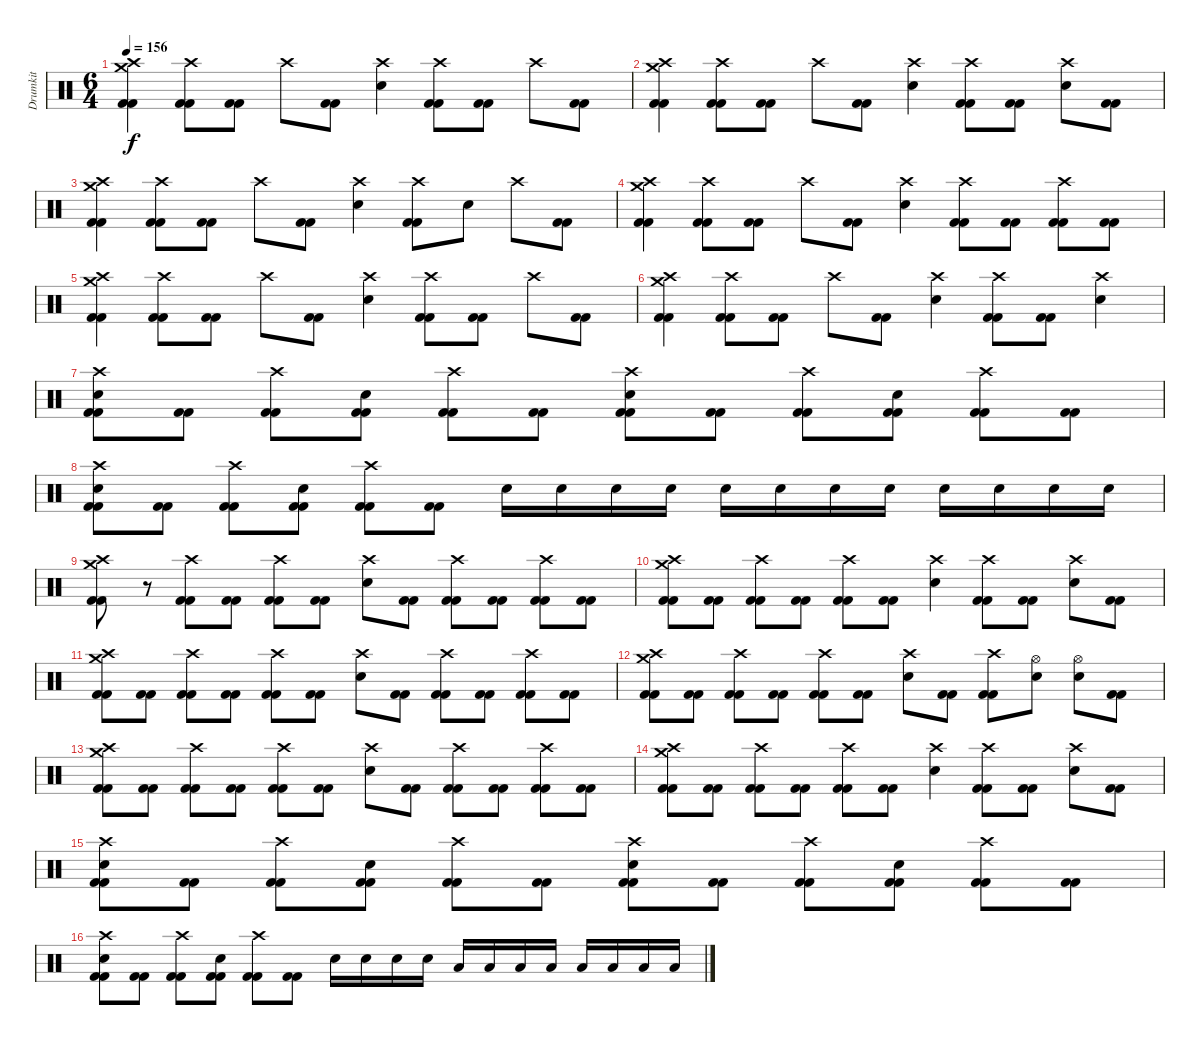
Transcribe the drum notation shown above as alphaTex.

\track ("Drumkit" "Drumkit") {instrument percussion bank 210}
\staff {score}
\articulation defaults
\ts (6 4)
\tempo 156
\clef neutral
\ks c
("Crash medium (hit)" "Crash high (hit)" "Kick (hit) 2" "Kick (hit) 2").4{dy f} ("Crash high (hit)" "Kick (hit) 2" "Kick (hit) 2").8 ("Kick (hit) 2" "Kick (hit) 2").8 "Crash high (hit)".8 ("Kick (hit) 2" "Kick (hit) 2").8 ("Crash high (hit)" "Electric Snare (hit)").4 ("Crash high (hit)" "Kick (hit) 2" "Kick (hit) 2").8 ("Kick (hit) 2" "Kick (hit) 2").8 "Crash high (hit)".8 ("Kick (hit) 2" "Kick (hit) 2").8 |
("Crash medium (hit)" "Crash high (hit)" "Kick (hit) 2" "Kick (hit) 2").4 ("Crash high (hit)" "Kick (hit) 2" "Kick (hit) 2").8 ("Kick (hit) 2" "Kick (hit) 2").8 "Crash high (hit)".8 ("Kick (hit) 2" "Kick (hit) 2").8 ("Crash high (hit)" "Electric Snare (hit)").4 ("Crash high (hit)" "Kick (hit) 2" "Kick (hit) 2").8 ("Kick (hit) 2" "Kick (hit) 2").8 ("Crash high (hit)" "Electric Snare (hit)").8 ("Kick (hit) 2" "Kick (hit) 2").8 |
("Crash medium (hit)" "Crash high (hit)" "Kick (hit) 2" "Kick (hit) 2").4 ("Crash high (hit)" "Kick (hit) 2" "Kick (hit) 2").8 ("Kick (hit) 2" "Kick (hit) 2").8 "Crash high (hit)".8 ("Kick (hit) 2" "Kick (hit) 2").8 ("Crash high (hit)" "Electric Snare (hit)").4 ("Crash high (hit)" "Kick (hit) 2" "Kick (hit) 2").8 "Electric Snare (hit)".8 "Crash high (hit)".8 ("Kick (hit) 2" "Kick (hit) 2").8 |
("Crash medium (hit)" "Crash high (hit)" "Kick (hit) 2" "Kick (hit) 2").4 ("Crash high (hit)" "Kick (hit) 2" "Kick (hit) 2").8 ("Kick (hit) 2" "Kick (hit) 2").8 "Crash high (hit)".8 ("Kick (hit) 2" "Kick (hit) 2").8 ("Crash high (hit)" "Electric Snare (hit)").4 ("Crash high (hit)" "Kick (hit) 2" "Kick (hit) 2").8 ("Kick (hit) 2" "Kick (hit) 2").8 ("Crash high (hit)" "Kick (hit) 2" "Kick (hit) 2").8 ("Kick (hit) 2" "Kick (hit) 2").8 |
("Crash medium (hit)" "Crash high (hit)" "Kick (hit) 2" "Kick (hit) 2").4 ("Crash high (hit)" "Kick (hit) 2" "Kick (hit) 2").8 ("Kick (hit) 2" "Kick (hit) 2").8 "Crash high (hit)".8 ("Kick (hit) 2" "Kick (hit) 2").8 ("Crash high (hit)" "Electric Snare (hit)").4 ("Crash high (hit)" "Kick (hit) 2" "Kick (hit) 2").8 ("Kick (hit) 2" "Kick (hit) 2").8 "Crash high (hit)".8 ("Kick (hit) 2" "Kick (hit) 2").8 |
("Crash medium (hit)" "Crash high (hit)" "Kick (hit) 2" "Kick (hit) 2").4 ("Crash high (hit)" "Kick (hit) 2" "Kick (hit) 2").8 ("Kick (hit) 2" "Kick (hit) 2").8 "Crash high (hit)".8 ("Kick (hit) 2" "Kick (hit) 2").8 ("Crash high (hit)" "Electric Snare (hit)").4 ("Crash high (hit)" "Kick (hit) 2" "Kick (hit) 2").8 ("Kick (hit) 2" "Kick (hit) 2").8 ("Crash high (hit)" "Electric Snare (hit)").4 |
("Crash high (hit)" "Electric Snare (hit)" "Kick (hit) 2" "Kick (hit) 2").8 ("Kick (hit) 2" "Kick (hit) 2").8 ("Crash high (hit)" "Kick (hit) 2" "Kick (hit) 2").8 ("Electric Snare (hit)" "Kick (hit) 2" "Kick (hit) 2").8 ("Crash high (hit)" "Kick (hit) 2" "Kick (hit) 2").8 ("Kick (hit) 2" "Kick (hit) 2").8 ("Crash high (hit)" "Electric Snare (hit)" "Kick (hit) 2" "Kick (hit) 2").8 ("Kick (hit) 2" "Kick (hit) 2").8 ("Crash high (hit)" "Kick (hit) 2" "Kick (hit) 2").8 ("Electric Snare (hit)" "Kick (hit) 2" "Kick (hit) 2").8 ("Crash high (hit)" "Kick (hit) 2" "Kick (hit) 2").8 ("Kick (hit) 2" "Kick (hit) 2").8 |
("Crash high (hit)" "Electric Snare (hit)" "Kick (hit) 2" "Kick (hit) 2").8 ("Kick (hit) 2" "Kick (hit) 2").8 ("Crash high (hit)" "Kick (hit) 2" "Kick (hit) 2").8 ("Electric Snare (hit)" "Kick (hit) 2" "Kick (hit) 2").8 ("Crash high (hit)" "Kick (hit) 2" "Kick (hit) 2").8 ("Kick (hit) 2" "Kick (hit) 2").8 "Electric Snare (hit)".16 "Electric Snare (hit)".16 "Electric Snare (hit)".16 "Electric Snare (hit)".16 "Electric Snare (hit)".16 "Electric Snare (hit)".16 "Electric Snare (hit)".16 "Electric Snare (hit)".16 "Electric Snare (hit)".16 "Electric Snare (hit)".16 "Electric Snare (hit)".16 "Electric Snare (hit)".16 |
("Crash medium (hit)" "Crash high (hit)" "Kick (hit) 2" "Kick (hit) 2").8 r.8 ("Crash high (hit)" "Kick (hit) 2" "Kick (hit) 2").8 ("Kick (hit) 2" "Kick (hit) 2").8 ("Crash high (hit)" "Kick (hit) 2" "Kick (hit) 2").8 ("Kick (hit) 2" "Kick (hit) 2").8 ("Crash high (hit)" "Electric Snare (hit)").8 ("Kick (hit) 2" "Kick (hit) 2").8 ("Crash high (hit)" "Kick (hit) 2" "Kick (hit) 2").8 ("Kick (hit) 2" "Kick (hit) 2").8 ("Crash high (hit)" "Kick (hit) 2" "Kick (hit) 2").8 ("Kick (hit) 2" "Kick (hit) 2").8 |
("Crash medium (hit)" "Crash high (hit)" "Kick (hit) 2" "Kick (hit) 2").8 ("Kick (hit) 2" "Kick (hit) 2").8 ("Crash high (hit)" "Kick (hit) 2" "Kick (hit) 2").8 ("Kick (hit) 2" "Kick (hit) 2").8 ("Crash high (hit)" "Kick (hit) 2" "Kick (hit) 2").8 ("Kick (hit) 2" "Kick (hit) 2").8 ("Crash high (hit)" "Electric Snare (hit)").4 ("Crash high (hit)" "Kick (hit) 2" "Kick (hit) 2").8 ("Kick (hit) 2" "Kick (hit) 2").8 ("Crash high (hit)" "Electric Snare (hit)").8 ("Kick (hit) 2" "Kick (hit) 2").8 |
("Crash medium (hit)" "Crash high (hit)" "Kick (hit) 2" "Kick (hit) 2").8 ("Kick (hit) 2" "Kick (hit) 2").8 ("Crash high (hit)" "Kick (hit) 2" "Kick (hit) 2").8 ("Kick (hit) 2" "Kick (hit) 2").8 ("Crash high (hit)" "Kick (hit) 2" "Kick (hit) 2").8 ("Kick (hit) 2" "Kick (hit) 2").8 ("Crash high (hit)" "Electric Snare (hit)").8 ("Kick (hit) 2" "Kick (hit) 2").8 ("Crash high (hit)" "Kick (hit) 2" "Kick (hit) 2").8 ("Kick (hit) 2" "Kick (hit) 2").8 ("Crash high (hit)" "Kick (hit) 2" "Kick (hit) 2").8 ("Kick (hit) 2" "Kick (hit) 2").8 |
("Crash medium (hit)" "Crash high (hit)" "Kick (hit) 2" "Kick (hit) 2").8 ("Kick (hit) 2" "Kick (hit) 2").8 ("Crash high (hit)" "Kick (hit) 2" "Kick (hit) 2").8 ("Kick (hit) 2" "Kick (hit) 2").8 ("Crash high (hit)" "Kick (hit) 2" "Kick (hit) 2").8 ("Kick (hit) 2" "Kick (hit) 2").8 ("Crash high (hit)" "Electric Snare (hit)").8 ("Kick (hit) 2" "Kick (hit) 2").8 ("Crash high (hit)" "Kick (hit) 2" "Kick (hit) 2").8 ("Hi-Hat (open)" "Electric Snare (hit)").8 ("Hi-Hat (open)" "Electric Snare (hit)").8 ("Kick (hit) 2" "Kick (hit) 2").8 |
("Crash medium (hit)" "Crash high (hit)" "Kick (hit) 2" "Kick (hit) 2").8 ("Kick (hit) 2" "Kick (hit) 2").8 ("Crash high (hit)" "Kick (hit) 2" "Kick (hit) 2").8 ("Kick (hit) 2" "Kick (hit) 2").8 ("Crash high (hit)" "Kick (hit) 2" "Kick (hit) 2").8 ("Kick (hit) 2" "Kick (hit) 2").8 ("Crash high (hit)" "Electric Snare (hit)").8 ("Kick (hit) 2" "Kick (hit) 2").8 ("Crash high (hit)" "Kick (hit) 2" "Kick (hit) 2").8 ("Kick (hit) 2" "Kick (hit) 2").8 ("Crash high (hit)" "Kick (hit) 2" "Kick (hit) 2").8 ("Kick (hit) 2" "Kick (hit) 2").8 |
("Crash medium (hit)" "Crash high (hit)" "Kick (hit) 2" "Kick (hit) 2").8 ("Kick (hit) 2" "Kick (hit) 2").8 ("Crash high (hit)" "Kick (hit) 2" "Kick (hit) 2").8 ("Kick (hit) 2" "Kick (hit) 2").8 ("Crash high (hit)" "Kick (hit) 2" "Kick (hit) 2").8 ("Kick (hit) 2" "Kick (hit) 2").8 ("Crash high (hit)" "Electric Snare (hit)").4 ("Crash high (hit)" "Kick (hit) 2" "Kick (hit) 2").8 ("Kick (hit) 2" "Kick (hit) 2").8 ("Crash high (hit)" "Electric Snare (hit)").8 ("Kick (hit) 2" "Kick (hit) 2").8 |
("Crash high (hit)" "Electric Snare (hit)" "Kick (hit) 2" "Kick (hit) 2").8 ("Kick (hit) 2" "Kick (hit) 2").8 ("Crash high (hit)" "Kick (hit) 2" "Kick (hit) 2").8 ("Electric Snare (hit)" "Kick (hit) 2" "Kick (hit) 2").8 ("Crash high (hit)" "Kick (hit) 2" "Kick (hit) 2").8 ("Kick (hit) 2" "Kick (hit) 2").8 ("Crash high (hit)" "Electric Snare (hit)" "Kick (hit) 2" "Kick (hit) 2").8 ("Kick (hit) 2" "Kick (hit) 2").8 ("Crash high (hit)" "Kick (hit) 2" "Kick (hit) 2").8 ("Electric Snare (hit)" "Kick (hit) 2" "Kick (hit) 2").8 ("Crash high (hit)" "Kick (hit) 2" "Kick (hit) 2").8 ("Kick (hit) 2" "Kick (hit) 2").8 |
("Crash high (hit)" "Electric Snare (hit)" "Kick (hit) 2" "Kick (hit) 2").8 ("Kick (hit) 2" "Kick (hit) 2").8 ("Crash high (hit)" "Kick (hit) 2" "Kick (hit) 2").8 ("Electric Snare (hit)" "Kick (hit) 2" "Kick (hit) 2").8 ("Crash high (hit)" "Kick (hit) 2" "Kick (hit) 2").8 ("Kick (hit) 2" "Kick (hit) 2").8 "Electric Snare (hit)".16 "Electric Snare (hit)".16 "Electric Snare (hit)".16 "Electric Snare (hit)".16 "Low Tom (hit)".16 "Low Tom (hit)".16 "Low Tom (hit)".16 "Low Tom (hit)".16 "Low Floor Tom (hit)".16 "Low Floor Tom (hit)".16 "Low Floor Tom (hit)".16 "Low Floor Tom (hit)".16
